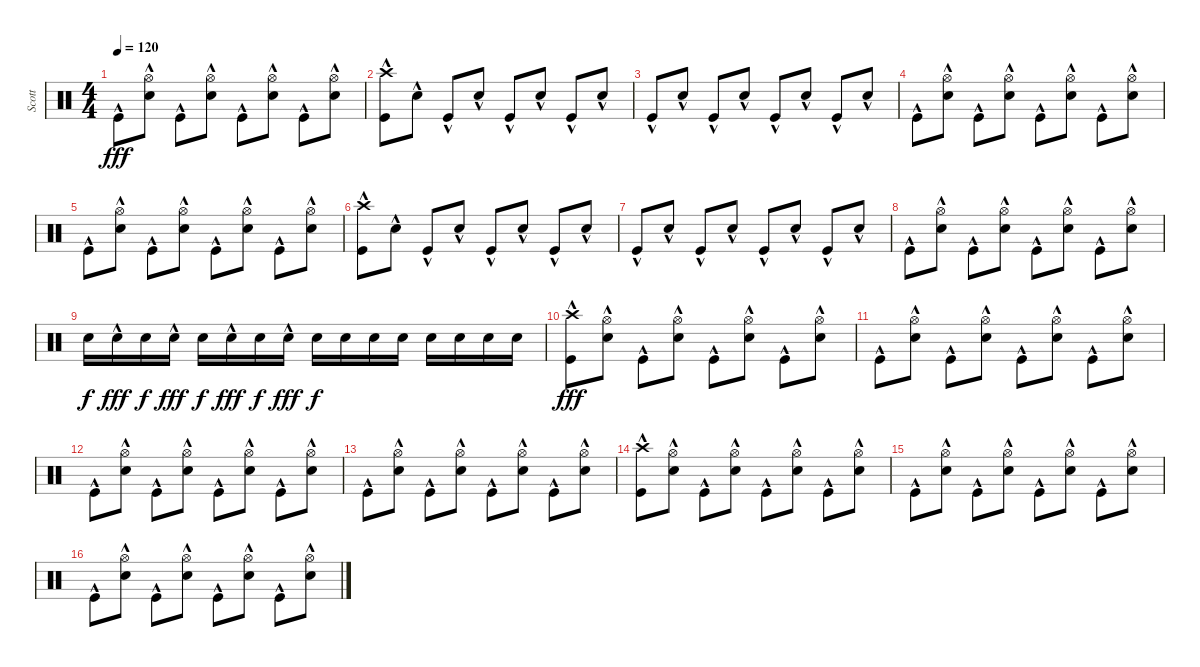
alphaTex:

\track ("Scott" "Scott") {instrument percussion}
\staff {score}
\articulation defaults
\ts (4 4)
\tempo 120
\clef neutral
\ks c "Kick (hit)"{hac}.8{dy fff}
("Hi-Hat (open)"{hac} "Electric Snare (hit)"{hac}).8 "Kick (hit)"{hac}.8 ("Hi-Hat (open)"{hac} "Electric Snare (hit)"{hac}).8 "Kick (hit)"{hac}.8 ("Hi-Hat (open)"{hac} "Electric Snare (hit)"{hac}).8 "Kick (hit)"{hac}.8 ("Hi-Hat (open)"{hac} "Electric Snare (hit)"{hac}).8 |
("Crash high (hit)"{hac} "Kick (hit)"{hac}).8 "Electric Snare (hit)"{hac}.8 "Kick (hit)"{hac}.8 "Electric Snare (hit)"{hac}.8 "Kick (hit)"{hac}.8 "Electric Snare (hit)"{hac}.8 "Kick (hit)"{hac}.8 "Electric Snare (hit)"{hac}.8 |
"Kick (hit)"{hac}.8 "Electric Snare (hit)"{hac}.8 "Kick (hit)"{hac}.8 "Electric Snare (hit)"{hac}.8 "Kick (hit)"{hac}.8 "Electric Snare (hit)"{hac}.8 "Kick (hit)"{hac}.8 "Electric Snare (hit)"{hac}.8 |
"Kick (hit)"{hac}.8 ("Hi-Hat (open)"{hac} "Electric Snare (hit)"{hac}).8 "Kick (hit)"{hac}.8 ("Hi-Hat (open)"{hac} "Electric Snare (hit)"{hac}).8 "Kick (hit)"{hac}.8 ("Hi-Hat (open)"{hac} "Electric Snare (hit)"{hac}).8 "Kick (hit)"{hac}.8 ("Hi-Hat (open)"{hac} "Electric Snare (hit)"{hac}).8 |
"Kick (hit)"{hac}.8 ("Hi-Hat (open)"{hac} "Electric Snare (hit)"{hac}).8 "Kick (hit)"{hac}.8 ("Hi-Hat (open)"{hac} "Electric Snare (hit)"{hac}).8 "Kick (hit)"{hac}.8 ("Hi-Hat (open)"{hac} "Electric Snare (hit)"{hac}).8 "Kick (hit)"{hac}.8 ("Hi-Hat (open)"{hac} "Electric Snare (hit)"{hac}).8 |
("Crash high (hit)"{hac} "Kick (hit)"{hac}).8 "Electric Snare (hit)"{hac}.8 "Kick (hit)"{hac}.8 "Electric Snare (hit)"{hac}.8 "Kick (hit)"{hac}.8 "Electric Snare (hit)"{hac}.8 "Kick (hit)"{hac}.8 "Electric Snare (hit)"{hac}.8 |
"Kick (hit)"{hac}.8 "Electric Snare (hit)"{hac}.8 "Kick (hit)"{hac}.8 "Electric Snare (hit)"{hac}.8 "Kick (hit)"{hac}.8 "Electric Snare (hit)"{hac}.8 "Kick (hit)"{hac}.8 "Electric Snare (hit)"{hac}.8 |
"Kick (hit)"{hac}.8 ("Hi-Hat (open)"{hac} "Electric Snare (hit)"{hac}).8 "Kick (hit)"{hac}.8 ("Hi-Hat (open)"{hac} "Electric Snare (hit)"{hac}).8 "Kick (hit)"{hac}.8 ("Hi-Hat (open)"{hac} "Electric Snare (hit)"{hac}).8 "Kick (hit)"{hac}.8 ("Hi-Hat (open)"{hac} "Electric Snare (hit)"{hac}).8 |
"Electric Snare (hit)".16{dy f} "Electric Snare (hit)"{hac}.16{dy fff} "Electric Snare (hit)".16{dy f} "Electric Snare (hit)"{hac}.16{dy fff} "Electric Snare (hit)".16{dy f} "Electric Snare (hit)"{hac}.16{dy fff} "Electric Snare (hit)".16{dy f} "Electric Snare (hit)"{hac}.16{dy fff} "Electric Snare (hit)".16{dy f} "Electric Snare (hit)".16 "Electric Snare (hit)".16 "Electric Snare (hit)".16 "Electric Snare (hit)".16 "Electric Snare (hit)".16 "Electric Snare (hit)".16 "Electric Snare (hit)".16 |
("Crash high (hit)"{hac} "Kick (hit)"{hac}).8{dy fff} ("Hi-Hat (open)"{hac} "Electric Snare (hit)"{hac}).8 "Kick (hit)"{hac}.8 ("Hi-Hat (open)"{hac} "Electric Snare (hit)"{hac}).8 "Kick (hit)"{hac}.8 ("Hi-Hat (open)"{hac} "Electric Snare (hit)"{hac}).8 "Kick (hit)"{hac}.8 ("Hi-Hat (open)"{hac} "Electric Snare (hit)"{hac}).8 |
"Kick (hit)"{hac}.8 ("Hi-Hat (open)"{hac} "Electric Snare (hit)"{hac}).8 "Kick (hit)"{hac}.8 ("Hi-Hat (open)"{hac} "Electric Snare (hit)"{hac}).8 "Kick (hit)"{hac}.8 ("Hi-Hat (open)"{hac} "Electric Snare (hit)"{hac}).8 "Kick (hit)"{hac}.8 ("Hi-Hat (open)"{hac} "Electric Snare (hit)"{hac}).8 |
"Kick (hit)"{hac}.8 ("Hi-Hat (open)"{hac} "Electric Snare (hit)"{hac}).8 "Kick (hit)"{hac}.8 ("Hi-Hat (open)"{hac} "Electric Snare (hit)"{hac}).8 "Kick (hit)"{hac}.8 ("Hi-Hat (open)"{hac} "Electric Snare (hit)"{hac}).8 "Kick (hit)"{hac}.8 ("Hi-Hat (open)"{hac} "Electric Snare (hit)"{hac}).8 |
"Kick (hit)"{hac}.8 ("Hi-Hat (open)"{hac} "Electric Snare (hit)"{hac}).8 "Kick (hit)"{hac}.8 ("Hi-Hat (open)"{hac} "Electric Snare (hit)"{hac}).8 "Kick (hit)"{hac}.8 ("Hi-Hat (open)"{hac} "Electric Snare (hit)"{hac}).8 "Kick (hit)"{hac}.8 ("Hi-Hat (open)"{hac} "Electric Snare (hit)"{hac}).8 |
("Crash high (hit)"{hac} "Kick (hit)"{hac}).8 ("Hi-Hat (open)"{hac} "Electric Snare (hit)"{hac}).8 "Kick (hit)"{hac}.8 ("Hi-Hat (open)"{hac} "Electric Snare (hit)"{hac}).8 "Kick (hit)"{hac}.8 ("Hi-Hat (open)"{hac} "Electric Snare (hit)"{hac}).8 "Kick (hit)"{hac}.8 ("Hi-Hat (open)"{hac} "Electric Snare (hit)"{hac}).8 |
"Kick (hit)"{hac}.8 ("Hi-Hat (open)"{hac} "Electric Snare (hit)"{hac}).8 "Kick (hit)"{hac}.8 ("Hi-Hat (open)"{hac} "Electric Snare (hit)"{hac}).8 "Kick (hit)"{hac}.8 ("Hi-Hat (open)"{hac} "Electric Snare (hit)"{hac}).8 "Kick (hit)"{hac}.8 ("Hi-Hat (open)"{hac} "Electric Snare (hit)"{hac}).8 |
"Kick (hit)"{hac}.8 ("Hi-Hat (open)"{hac} "Electric Snare (hit)"{hac}).8 "Kick (hit)"{hac}.8 ("Hi-Hat (open)"{hac} "Electric Snare (hit)"{hac}).8 "Kick (hit)"{hac}.8 ("Hi-Hat (open)"{hac} "Electric Snare (hit)"{hac}).8 "Kick (hit)"{hac}.8 ("Hi-Hat (open)"{hac} "Electric Snare (hit)"{hac}).8
